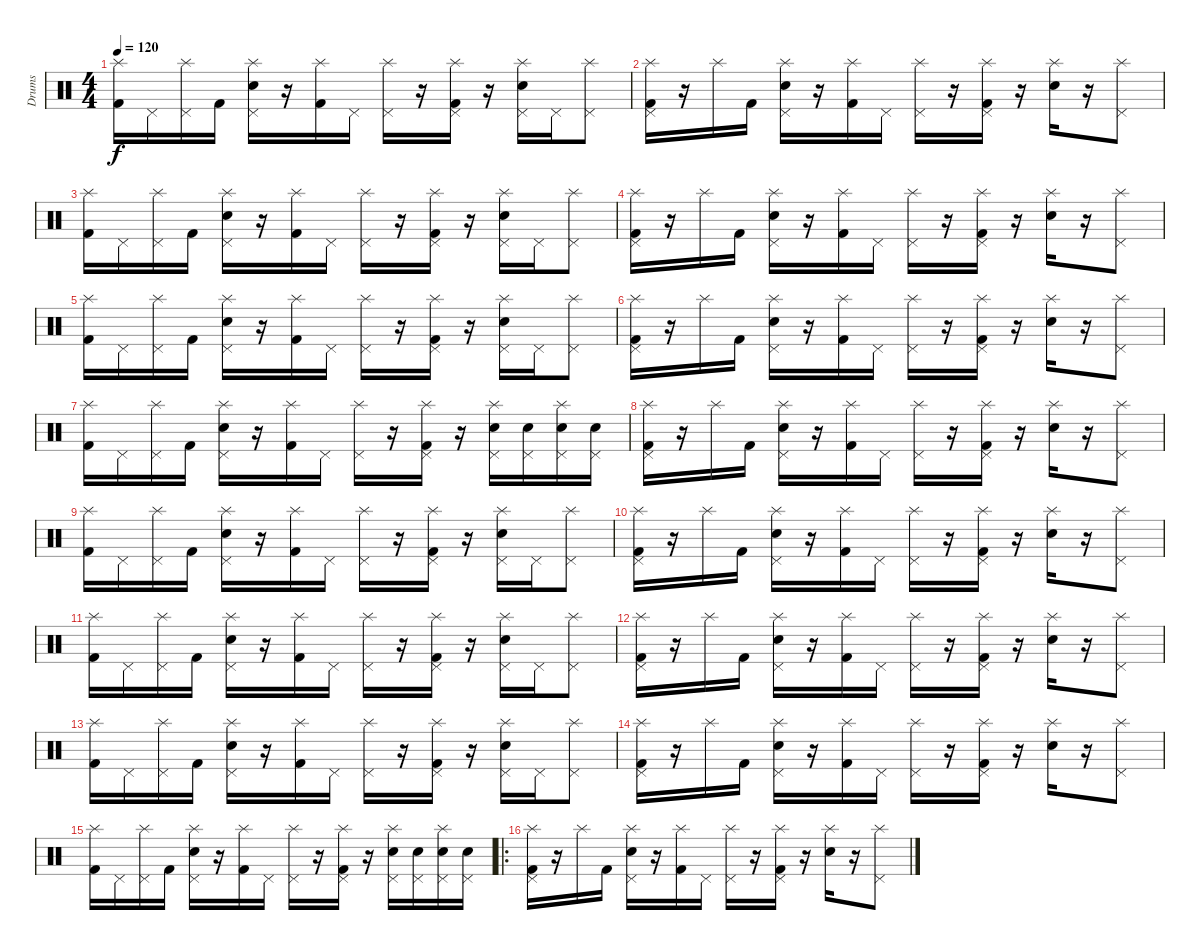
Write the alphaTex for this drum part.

\track ("Drums" "Drums") {instrument percussion}
\staff {score}
\articulation defaults
\ts (4 4)
\tempo 120
\clef neutral
\ks c
("Splash (hit)" "Kick (hit) 2").16{dy f} "Pedal Hi-Hat (hit)".16 ("Splash (hit)" "Pedal Hi-Hat (hit)").16 "Kick (hit) 2".16 ("Splash (hit)" "Pedal Hi-Hat (hit)" "Electric Snare (hit)").16 r.16 ("Splash (hit)" "Kick (hit) 2").16 "Pedal Hi-Hat (hit)".16 ("Splash (hit)" "Pedal Hi-Hat (hit)").16 r.16 ("Splash (hit)" "Pedal Hi-Hat (hit)" "Kick (hit) 2").16 r.16 ("Splash (hit)" "Pedal Hi-Hat (hit)" "Electric Snare (hit)").16 "Pedal Hi-Hat (hit)".16 ("Splash (hit)" "Pedal Hi-Hat (hit)").8 |
("Splash (hit)" "Pedal Hi-Hat (hit)" "Kick (hit) 2").16 r.16 "Splash (hit)".16 "Kick (hit) 2".16 ("Splash (hit)" "Pedal Hi-Hat (hit)" "Electric Snare (hit)").16 r.16 ("Splash (hit)" "Kick (hit) 2").16 "Pedal Hi-Hat (hit)".16 ("Splash (hit)" "Pedal Hi-Hat (hit)").16 r.16 ("Splash (hit)" "Pedal Hi-Hat (hit)" "Kick (hit) 2").16 r.16 ("Splash (hit)" "Electric Snare (hit)").16 r.16 ("Splash (hit)" "Pedal Hi-Hat (hit)").8 |
("Splash (hit)" "Kick (hit) 2").16 "Pedal Hi-Hat (hit)".16 ("Splash (hit)" "Pedal Hi-Hat (hit)").16 "Kick (hit) 2".16 ("Splash (hit)" "Pedal Hi-Hat (hit)" "Electric Snare (hit)").16 r.16 ("Splash (hit)" "Kick (hit) 2").16 "Pedal Hi-Hat (hit)".16 ("Splash (hit)" "Pedal Hi-Hat (hit)").16 r.16 ("Splash (hit)" "Pedal Hi-Hat (hit)" "Kick (hit) 2").16 r.16 ("Splash (hit)" "Pedal Hi-Hat (hit)" "Electric Snare (hit)").16 "Pedal Hi-Hat (hit)".16 ("Splash (hit)" "Pedal Hi-Hat (hit)").8 |
("Splash (hit)" "Pedal Hi-Hat (hit)" "Kick (hit) 2").16 r.16 "Splash (hit)".16 "Kick (hit) 2".16 ("Splash (hit)" "Pedal Hi-Hat (hit)" "Electric Snare (hit)").16 r.16 ("Splash (hit)" "Kick (hit) 2").16 "Pedal Hi-Hat (hit)".16 ("Splash (hit)" "Pedal Hi-Hat (hit)").16 r.16 ("Splash (hit)" "Pedal Hi-Hat (hit)" "Kick (hit) 2").16 r.16 ("Splash (hit)" "Electric Snare (hit)").16 r.16 ("Splash (hit)" "Pedal Hi-Hat (hit)").8 |
("Splash (hit)" "Kick (hit) 2").16 "Pedal Hi-Hat (hit)".16 ("Splash (hit)" "Pedal Hi-Hat (hit)").16 "Kick (hit) 2".16 ("Splash (hit)" "Pedal Hi-Hat (hit)" "Electric Snare (hit)").16 r.16 ("Splash (hit)" "Kick (hit) 2").16 "Pedal Hi-Hat (hit)".16 ("Splash (hit)" "Pedal Hi-Hat (hit)").16 r.16 ("Splash (hit)" "Pedal Hi-Hat (hit)" "Kick (hit) 2").16 r.16 ("Splash (hit)" "Pedal Hi-Hat (hit)" "Electric Snare (hit)").16 "Pedal Hi-Hat (hit)".16 ("Splash (hit)" "Pedal Hi-Hat (hit)").8 |
("Splash (hit)" "Pedal Hi-Hat (hit)" "Kick (hit) 2").16 r.16 "Splash (hit)".16 "Kick (hit) 2".16 ("Splash (hit)" "Pedal Hi-Hat (hit)" "Electric Snare (hit)").16 r.16 ("Splash (hit)" "Kick (hit) 2").16 "Pedal Hi-Hat (hit)".16 ("Splash (hit)" "Pedal Hi-Hat (hit)").16 r.16 ("Splash (hit)" "Pedal Hi-Hat (hit)" "Kick (hit) 2").16 r.16 ("Splash (hit)" "Electric Snare (hit)").16 r.16 ("Splash (hit)" "Pedal Hi-Hat (hit)").8 |
("Splash (hit)" "Kick (hit) 2").16 "Pedal Hi-Hat (hit)".16 ("Splash (hit)" "Pedal Hi-Hat (hit)").16 "Kick (hit) 2".16 ("Splash (hit)" "Pedal Hi-Hat (hit)" "Electric Snare (hit)").16 r.16 ("Splash (hit)" "Kick (hit) 2").16 "Pedal Hi-Hat (hit)".16 ("Splash (hit)" "Pedal Hi-Hat (hit)").16 r.16 ("Splash (hit)" "Pedal Hi-Hat (hit)" "Kick (hit) 2").16 r.16 ("Splash (hit)" "Pedal Hi-Hat (hit)" "Electric Snare (hit)").16 ("Pedal Hi-Hat (hit)" "Electric Snare (hit)").16 ("Splash (hit)" "Pedal Hi-Hat (hit)" "Electric Snare (hit)").16 ("Pedal Hi-Hat (hit)" "Electric Snare (hit)").16 |
("Splash (hit)" "Pedal Hi-Hat (hit)" "Kick (hit) 2").16 r.16 "Splash (hit)".16 "Kick (hit) 2".16 ("Splash (hit)" "Pedal Hi-Hat (hit)" "Electric Snare (hit)").16 r.16 ("Splash (hit)" "Kick (hit) 2").16 "Pedal Hi-Hat (hit)".16 ("Splash (hit)" "Pedal Hi-Hat (hit)").16 r.16 ("Splash (hit)" "Pedal Hi-Hat (hit)" "Kick (hit) 2").16 r.16 ("Splash (hit)" "Electric Snare (hit)").16 r.16 ("Splash (hit)" "Pedal Hi-Hat (hit)").8 |
("Splash (hit)" "Kick (hit) 2").16 "Pedal Hi-Hat (hit)".16 ("Splash (hit)" "Pedal Hi-Hat (hit)").16 "Kick (hit) 2".16 ("Splash (hit)" "Pedal Hi-Hat (hit)" "Electric Snare (hit)").16 r.16 ("Splash (hit)" "Kick (hit) 2").16 "Pedal Hi-Hat (hit)".16 ("Splash (hit)" "Pedal Hi-Hat (hit)").16 r.16 ("Splash (hit)" "Pedal Hi-Hat (hit)" "Kick (hit) 2").16 r.16 ("Splash (hit)" "Pedal Hi-Hat (hit)" "Electric Snare (hit)").16 "Pedal Hi-Hat (hit)".16 ("Splash (hit)" "Pedal Hi-Hat (hit)").8 |
("Splash (hit)" "Pedal Hi-Hat (hit)" "Kick (hit) 2").16 r.16 "Splash (hit)".16 "Kick (hit) 2".16 ("Splash (hit)" "Pedal Hi-Hat (hit)" "Electric Snare (hit)").16 r.16 ("Splash (hit)" "Kick (hit) 2").16 "Pedal Hi-Hat (hit)".16 ("Splash (hit)" "Pedal Hi-Hat (hit)").16 r.16 ("Splash (hit)" "Pedal Hi-Hat (hit)" "Kick (hit) 2").16 r.16 ("Splash (hit)" "Electric Snare (hit)").16 r.16 ("Splash (hit)" "Pedal Hi-Hat (hit)").8 |
("Splash (hit)" "Kick (hit) 2").16 "Pedal Hi-Hat (hit)".16 ("Splash (hit)" "Pedal Hi-Hat (hit)").16 "Kick (hit) 2".16 ("Splash (hit)" "Pedal Hi-Hat (hit)" "Electric Snare (hit)").16 r.16 ("Splash (hit)" "Kick (hit) 2").16 "Pedal Hi-Hat (hit)".16 ("Splash (hit)" "Pedal Hi-Hat (hit)").16 r.16 ("Splash (hit)" "Pedal Hi-Hat (hit)" "Kick (hit) 2").16 r.16 ("Splash (hit)" "Pedal Hi-Hat (hit)" "Electric Snare (hit)").16 "Pedal Hi-Hat (hit)".16 ("Splash (hit)" "Pedal Hi-Hat (hit)").8 |
("Splash (hit)" "Pedal Hi-Hat (hit)" "Kick (hit) 2").16 r.16 "Splash (hit)".16 "Kick (hit) 2".16 ("Splash (hit)" "Pedal Hi-Hat (hit)" "Electric Snare (hit)").16 r.16 ("Splash (hit)" "Kick (hit) 2").16 "Pedal Hi-Hat (hit)".16 ("Splash (hit)" "Pedal Hi-Hat (hit)").16 r.16 ("Splash (hit)" "Pedal Hi-Hat (hit)" "Kick (hit) 2").16 r.16 ("Splash (hit)" "Electric Snare (hit)").16 r.16 ("Splash (hit)" "Pedal Hi-Hat (hit)").8 |
("Splash (hit)" "Kick (hit) 2").16 "Pedal Hi-Hat (hit)".16 ("Splash (hit)" "Pedal Hi-Hat (hit)").16 "Kick (hit) 2".16 ("Splash (hit)" "Pedal Hi-Hat (hit)" "Electric Snare (hit)").16 r.16 ("Splash (hit)" "Kick (hit) 2").16 "Pedal Hi-Hat (hit)".16 ("Splash (hit)" "Pedal Hi-Hat (hit)").16 r.16 ("Splash (hit)" "Pedal Hi-Hat (hit)" "Kick (hit) 2").16 r.16 ("Splash (hit)" "Pedal Hi-Hat (hit)" "Electric Snare (hit)").16 "Pedal Hi-Hat (hit)".16 ("Splash (hit)" "Pedal Hi-Hat (hit)").8 |
("Splash (hit)" "Pedal Hi-Hat (hit)" "Kick (hit) 2").16 r.16 "Splash (hit)".16 "Kick (hit) 2".16 ("Splash (hit)" "Pedal Hi-Hat (hit)" "Electric Snare (hit)").16 r.16 ("Splash (hit)" "Kick (hit) 2").16 "Pedal Hi-Hat (hit)".16 ("Splash (hit)" "Pedal Hi-Hat (hit)").16 r.16 ("Splash (hit)" "Pedal Hi-Hat (hit)" "Kick (hit) 2").16 r.16 ("Splash (hit)" "Electric Snare (hit)").16 r.16 ("Splash (hit)" "Pedal Hi-Hat (hit)").8 |
("Splash (hit)" "Kick (hit) 2").16 "Pedal Hi-Hat (hit)".16 ("Splash (hit)" "Pedal Hi-Hat (hit)").16 "Kick (hit) 2".16 ("Splash (hit)" "Pedal Hi-Hat (hit)" "Electric Snare (hit)").16 r.16 ("Splash (hit)" "Kick (hit) 2").16 "Pedal Hi-Hat (hit)".16 ("Splash (hit)" "Pedal Hi-Hat (hit)").16 r.16 ("Splash (hit)" "Pedal Hi-Hat (hit)" "Kick (hit) 2").16 r.16 ("Splash (hit)" "Pedal Hi-Hat (hit)" "Electric Snare (hit)").16 ("Pedal Hi-Hat (hit)" "Electric Snare (hit)").16 ("Splash (hit)" "Pedal Hi-Hat (hit)" "Electric Snare (hit)").16 ("Pedal Hi-Hat (hit)" "Electric Snare (hit)").16 |
\ro
("Splash (hit)" "Pedal Hi-Hat (hit)" "Kick (hit) 2").16 r.16 "Splash (hit)".16 "Kick (hit) 2".16 ("Splash (hit)" "Pedal Hi-Hat (hit)" "Electric Snare (hit)").16 r.16 ("Splash (hit)" "Kick (hit) 2").16 "Pedal Hi-Hat (hit)".16 ("Splash (hit)" "Pedal Hi-Hat (hit)").16 r.16 ("Splash (hit)" "Pedal Hi-Hat (hit)" "Kick (hit) 2").16 r.16 ("Splash (hit)" "Electric Snare (hit)").16 r.16 ("Splash (hit)" "Pedal Hi-Hat (hit)").8
